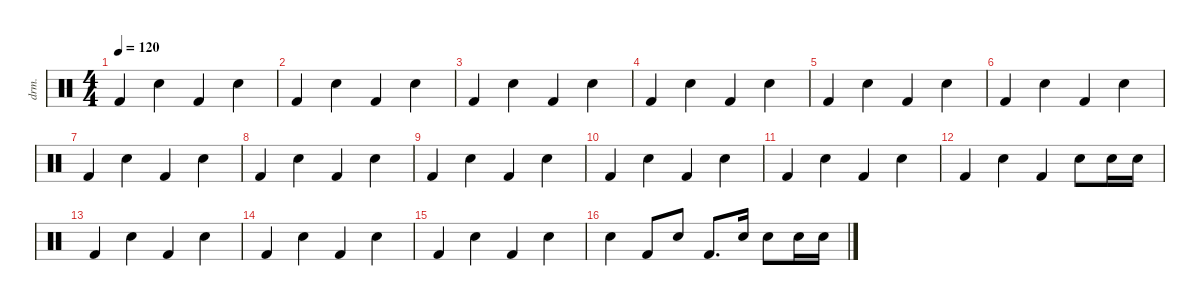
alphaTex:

\defaultSystemsLayout 4
\hideDynamics
\bracketExtendMode nobrackets
\otherSystemsTrackNameOrientation horizontal
\track ("Batterie" "drm.") {instrument percussion}
\staff {score}
\articulation defaults
\ts (4 4)
\tempo 120
\clef neutral
\ks c "Kick (hit) 2".4{dy f} "Snare (hit) 2".4 "Kick (hit) 2".4 "Snare (hit) 2".4
|
"Kick (hit) 2".4 "Snare (hit) 2".4 "Kick (hit) 2".4 "Snare (hit) 2".4 |
"Kick (hit) 2".4 "Snare (hit) 2".4 "Kick (hit) 2".4 "Snare (hit) 2".4 |
"Kick (hit) 2".4 "Snare (hit) 2".4 "Kick (hit) 2".4 "Snare (hit) 2".4 |
"Kick (hit) 2".4 "Snare (hit) 2".4 "Kick (hit) 2".4 "Snare (hit) 2".4 |
"Kick (hit) 2".4 "Snare (hit) 2".4 "Kick (hit) 2".4 "Snare (hit) 2".4 |
"Kick (hit) 2".4 "Snare (hit) 2".4 "Kick (hit) 2".4 "Snare (hit) 2".4 |
"Kick (hit) 2".4 "Snare (hit) 2".4 "Kick (hit) 2".4 "Snare (hit) 2".4 |
"Kick (hit) 2".4 "Snare (hit) 2".4 "Kick (hit) 2".4 "Snare (hit) 2".4 |
"Kick (hit) 2".4 "Snare (hit) 2".4 "Kick (hit) 2".4 "Snare (hit) 2".4 |
"Kick (hit) 2".4 "Snare (hit) 2".4 "Kick (hit) 2".4 "Snare (hit) 2".4 |
"Kick (hit) 2".4 "Snare (hit) 2".4 "Kick (hit) 2".4 "Snare (hit) 2".8 "Snare (hit) 2".16 "Snare (hit) 2".16 |
"Kick (hit) 2".4 "Snare (hit) 2".4 "Kick (hit) 2".4 "Snare (hit) 2".4 |
"Kick (hit) 2".4 "Snare (hit) 2".4 "Kick (hit) 2".4 "Snare (hit) 2".4 |
"Kick (hit) 2".4 "Snare (hit) 2".4 "Kick (hit) 2".4 "Snare (hit) 2".4 |
"Snare (hit) 2".4 "Kick (hit) 2".8 "Snare (hit) 2".8 "Kick (hit) 2".8{d} "Snare (hit) 2".16 "Snare (hit) 2".8 "Snare (hit) 2".16 "Snare (hit) 2".16
